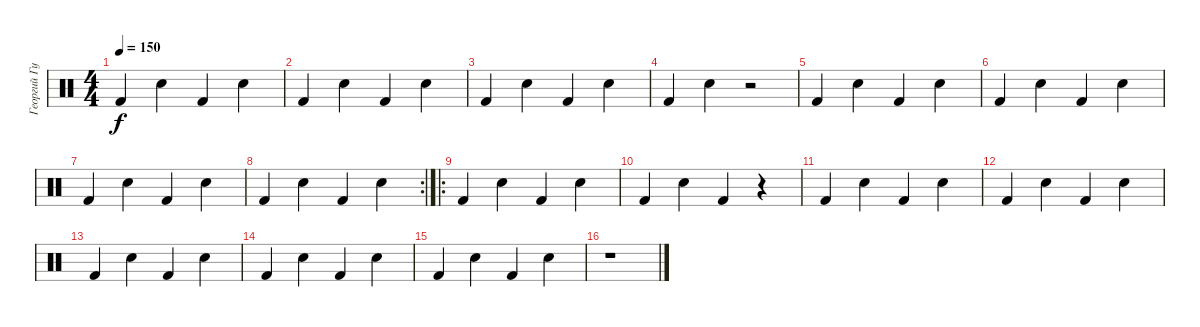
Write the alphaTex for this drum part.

\track ("Георгий Гурьянов" "Георгий Гу") {instrument percussion}
\staff {score}
\articulation defaults
\ts (4 4)
\tempo 150
\clef neutral
\ks c "Kick (hit) 2".4{dy f} "Snare (hit) 2".4 "Kick (hit) 2".4 "Snare (hit) 2".4
|
"Kick (hit) 2".4 "Snare (hit) 2".4 "Kick (hit) 2".4 "Snare (hit) 2".4 |
"Kick (hit) 2".4 "Snare (hit) 2".4 "Kick (hit) 2".4 "Snare (hit) 2".4 |
"Kick (hit) 2".4 "Snare (hit) 2".4 r.2 |
"Kick (hit) 2".4 "Snare (hit) 2".4 "Kick (hit) 2".4 "Snare (hit) 2".4 |
"Kick (hit) 2".4 "Snare (hit) 2".4 "Kick (hit) 2".4 "Snare (hit) 2".4 |
"Kick (hit) 2".4 "Snare (hit) 2".4 "Kick (hit) 2".4 "Snare (hit) 2".4 |
\rc 2 "Kick (hit) 2".4 "Snare (hit) 2".4 "Kick (hit) 2".4 "Snare (hit) 2".4
|
\ro "Kick (hit) 2".4 "Snare (hit) 2".4 "Kick (hit) 2".4 "Snare (hit) 2".4
|
"Kick (hit) 2".4 "Snare (hit) 2".4 "Kick (hit) 2".4 r.4 |
"Kick (hit) 2".4 "Snare (hit) 2".4 "Kick (hit) 2".4 "Snare (hit) 2".4 |
"Kick (hit) 2".4 "Snare (hit) 2".4 "Kick (hit) 2".4 "Snare (hit) 2".4 |
"Kick (hit) 2".4 "Snare (hit) 2".4 "Kick (hit) 2".4 "Snare (hit) 2".4 |
"Kick (hit) 2".4 "Snare (hit) 2".4 "Kick (hit) 2".4 "Snare (hit) 2".4 |
"Kick (hit) 2".4 "Snare (hit) 2".4 "Kick (hit) 2".4 "Snare (hit) 2".4 |
r.1
